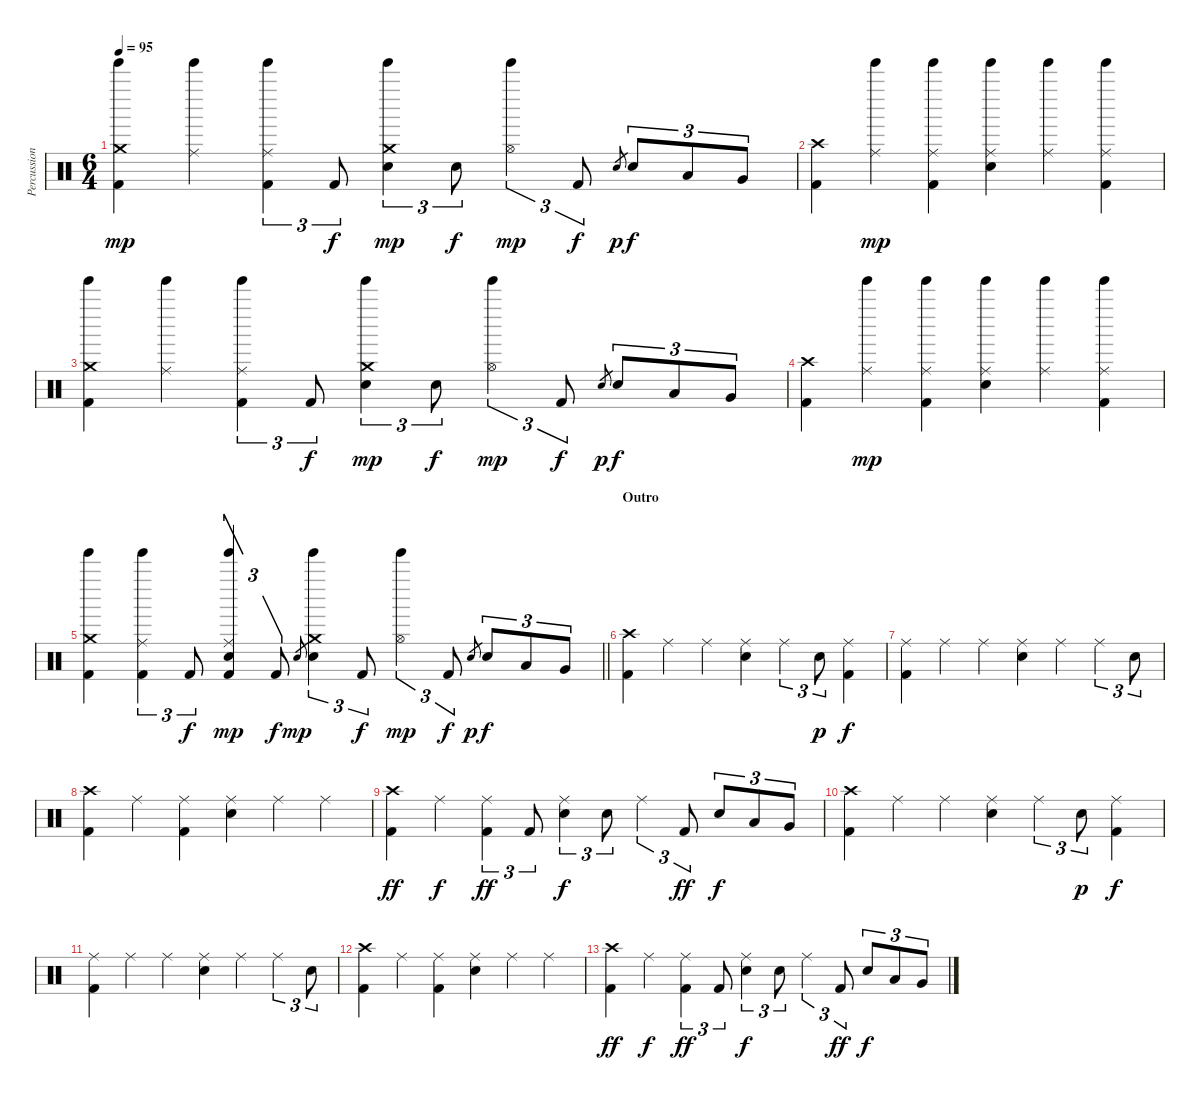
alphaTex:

\track ("Percussion" "Percussion") {instrument percussion}
\staff {score}
\articulation defaults
\ts (6 4)
\tempo 95
\clef neutral
\ks c
("Crash medium (hit)" "Kick (hit) 2" "Tinkle Bell (hit)").4{dy mp} ("Ride (middle)" "Tinkle Bell (hit)").4 ("Ride (middle)" "Tinkle Bell (hit)" "Kick (hit) 2").4{tu (3 2)} "Kick (hit) 2".8{tu (3 2) dy f} ("Snare (hit) 2" "Crash medium (hit)" "Tinkle Bell (hit)").4{tu (3 2) dy mp} "Snare (hit) 2".8{tu (3 2) dy f} ("Hi-Hat (open)" "Tinkle Bell (hit)").4{tu (3 2) dy mp} "Kick (hit) 2".8{tu (3 2) dy f} "Snare (hit) 2".8{gr dy p} "Snare (hit) 2".8{tu (3 2) dy f} "Low Tom (hit)".8{tu (3 2)} "Very Low Tom (hit)".8{tu (3 2)} |
("Crash high (hit)" "Kick (hit) 2").4 ("Ride (middle)" "Tinkle Bell (hit)").4{dy mp} ("Ride (middle)" "Tinkle Bell (hit)" "Kick (hit) 2").4 ("Ride (middle)" "Snare (hit) 2" "Tinkle Bell (hit)").4 ("Ride (middle)" "Tinkle Bell (hit)").4 ("Ride (middle)" "Tinkle Bell (hit)" "Kick (hit) 2").4 |
("Crash medium (hit)" "Kick (hit) 2" "Tinkle Bell (hit)").4 ("Ride (middle)" "Tinkle Bell (hit)").4 ("Ride (middle)" "Tinkle Bell (hit)" "Kick (hit) 2").4{tu (3 2)} "Kick (hit) 2".8{tu (3 2) dy f} ("Snare (hit) 2" "Crash medium (hit)" "Tinkle Bell (hit)").4{tu (3 2) dy mp} "Snare (hit) 2".8{tu (3 2) dy f} ("Hi-Hat (open)" "Tinkle Bell (hit)").4{tu (3 2) dy mp} "Kick (hit) 2".8{tu (3 2) dy f} "Snare (hit) 2".8{gr dy p} "Snare (hit) 2".8{tu (3 2) dy f} "Low Tom (hit)".8{tu (3 2)} "Very Low Tom (hit)".8{tu (3 2)} |
("Crash high (hit)" "Kick (hit) 2").4 ("Ride (middle)" "Tinkle Bell (hit)").4{dy mp} ("Ride (middle)" "Tinkle Bell (hit)" "Kick (hit) 2").4 ("Ride (middle)" "Snare (hit) 2" "Tinkle Bell (hit)").4 ("Ride (middle)" "Tinkle Bell (hit)").4 ("Ride (middle)" "Tinkle Bell (hit)" "Kick (hit) 2").4 |
\barLineRight lightlight
("Crash medium (hit)" "Kick (hit) 2" "Tinkle Bell (hit)").4 ("Ride (middle)" "Tinkle Bell (hit)" "Kick (hit) 2").4{tu (3 2)} "Kick (hit) 2".8{tu (3 2) dy f} ("Ride (middle)" "Tinkle Bell (hit)" "Kick (hit) 2" "Snare (hit) 2").4{tu (3 2) dy mp} "Kick (hit) 2".8{tu (3 2) dy f} "Snare (hit) 2".8{gr dy mp} ("Snare (hit) 2" "Crash medium (hit)" "Tinkle Bell (hit)").4{tu (3 2)} "Kick (hit) 2".8{tu (3 2) dy f} ("Hi-Hat (open)" "Tinkle Bell (hit)").4{tu (3 2) dy mp} "Kick (hit) 2".8{tu (3 2) dy f} "Snare (hit) 2".8{gr dy p} "Snare (hit) 2".8{tu (3 2) dy f} "Low Tom (hit)".8{tu (3 2)} "Very Low Tom (hit)".8{tu (3 2)} |
\section ("" "Outro")
("Kick (hit) 2" "Crash high (hit)").4 "Ride (middle)".4 "Ride (middle)".4 ("Ride (middle)" "Snare (hit) 2").4 "Ride (middle)".4{tu (3 2)} "Snare (hit) 2".8{tu (3 2) dy p} ("Ride (middle)" "Kick (hit) 2").4{dy f} |
("Kick (hit) 2" "Ride (middle)").4 "Ride (middle)".4 "Ride (middle)".4 ("Ride (middle)" "Snare (hit) 2").4 "Ride (middle)".4 "Ride (middle)".4{tu (3 2)} "Snare (hit) 2".8{tu (3 2)} |
("Kick (hit) 2" "Crash high (hit)").4 "Ride (middle)".4 ("Ride (middle)" "Kick (hit) 2").4 ("Ride (middle)" "Snare (hit) 2").4 "Ride (middle)".4 "Ride (middle)".4 |
("Kick (hit) 2" "Crash high (hit)").4{dy ff} "Ride (middle)".4{dy f} ("Ride (middle)" "Kick (hit) 2").4{tu (3 2) dy ff} "Kick (hit) 2".8{tu (3 2)} ("Ride (middle)" "Snare (hit) 2").4{tu (3 2) dy f} "Snare (hit) 2".8{tu (3 2)} "Ride (middle)".4{tu (3 2)} "Kick (hit) 2".8{tu (3 2) dy ff} "Snare (hit) 2".8{tu (3 2) dy f} "Low Tom (hit)".8{tu (3 2)} "Very Low Tom (hit)".8{tu (3 2)} |
("Kick (hit) 2" "Crash high (hit)").4 "Ride (middle)".4 "Ride (middle)".4 ("Ride (middle)" "Snare (hit) 2").4 "Ride (middle)".4{tu (3 2)} "Snare (hit) 2".8{tu (3 2) dy p} ("Ride (middle)" "Kick (hit) 2").4{dy f} |
("Kick (hit) 2" "Ride (middle)").4 "Ride (middle)".4 "Ride (middle)".4 ("Ride (middle)" "Snare (hit) 2").4 "Ride (middle)".4 "Ride (middle)".4{tu (3 2)} "Snare (hit) 2".8{tu (3 2)} |
("Kick (hit) 2" "Crash high (hit)").4 "Ride (middle)".4 ("Ride (middle)" "Kick (hit) 2").4 ("Ride (middle)" "Snare (hit) 2").4 "Ride (middle)".4 "Ride (middle)".4 |
("Kick (hit) 2" "Crash high (hit)").4{dy ff} "Ride (middle)".4{dy f} ("Ride (middle)" "Kick (hit) 2").4{tu (3 2) dy ff} "Kick (hit) 2".8{tu (3 2)} ("Ride (middle)" "Snare (hit) 2").4{tu (3 2) dy f} "Snare (hit) 2".8{tu (3 2)} "Ride (middle)".4{tu (3 2)} "Kick (hit) 2".8{tu (3 2) dy ff} "Snare (hit) 2".8{tu (3 2) dy f} "Low Tom (hit)".8{tu (3 2)} "Very Low Tom (hit)".8{tu (3 2)}
